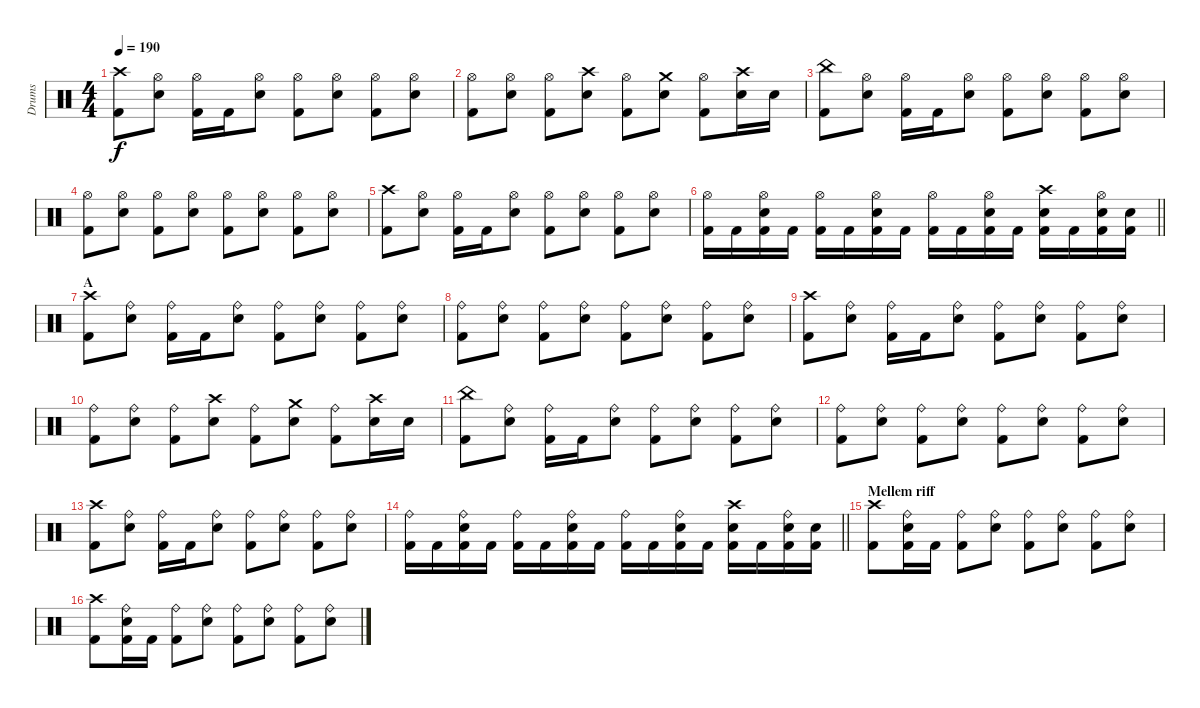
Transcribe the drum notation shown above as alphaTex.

\track ("Drums" "Drums") {instrument percussion}
\staff {score}
\articulation defaults
\ts (4 4)
\tempo 190
\clef neutral
\ks c
("Crash high (hit)" "Kick (hit) 2").8{dy f} ("Hi-Hat (open)" "Snare (hit) 2").8 ("Hi-Hat (open)" "Kick (hit) 2").16 "Kick (hit) 2".16 ("Hi-Hat (open)" "Snare (hit) 2").8 ("Hi-Hat (open)" "Kick (hit) 2").8 ("Hi-Hat (open)" "Snare (hit) 2").8 ("Hi-Hat (open)" "Kick (hit) 2").8 ("Hi-Hat (open)" "Snare (hit) 2").8 |
("Hi-Hat (open)" "Kick (hit) 2").8 ("Hi-Hat (open)" "Snare (hit) 2").8 ("Hi-Hat (open)" "Kick (hit) 2").8 ("Crash high (hit)" "Snare (hit) 2").8 ("Hi-Hat (open)" "Kick (hit) 2").8 ("Crash medium (hit)" "Snare (hit) 2").8 ("Hi-Hat (open)" "Kick (hit) 2").8 ("Crash high (hit)" "Snare (hit) 2").16 "Snare (hit) 2".16 |
("China (hit)" "Kick (hit) 2").8 ("Hi-Hat (open)" "Snare (hit) 2").8 ("Hi-Hat (open)" "Kick (hit) 2").16 "Kick (hit) 2".16 ("Hi-Hat (open)" "Snare (hit) 2").8 ("Hi-Hat (open)" "Kick (hit) 2").8 ("Hi-Hat (open)" "Snare (hit) 2").8 ("Hi-Hat (open)" "Kick (hit) 2").8 ("Hi-Hat (open)" "Snare (hit) 2").8 |
("Hi-Hat (open)" "Kick (hit) 2").8 ("Hi-Hat (open)" "Snare (hit) 2").8 ("Hi-Hat (open)" "Kick (hit) 2").8 ("Hi-Hat (open)" "Snare (hit) 2").8 ("Hi-Hat (open)" "Kick (hit) 2").8 ("Hi-Hat (open)" "Snare (hit) 2").8 ("Hi-Hat (open)" "Kick (hit) 2").8 ("Hi-Hat (open)" "Snare (hit) 2").8 |
("Crash high (hit)" "Kick (hit) 2").8 ("Hi-Hat (open)" "Snare (hit) 2").8 ("Hi-Hat (open)" "Kick (hit) 2").16 "Kick (hit) 2".16 ("Hi-Hat (open)" "Snare (hit) 2").8 ("Hi-Hat (open)" "Kick (hit) 2").8 ("Hi-Hat (open)" "Snare (hit) 2").8 ("Hi-Hat (open)" "Kick (hit) 2").8 ("Hi-Hat (open)" "Snare (hit) 2").8 |
\barLineRight lightlight
("Hi-Hat (open)" "Kick (hit) 2").16 "Kick (hit) 2".16 ("Hi-Hat (open)" "Snare (hit) 2" "Kick (hit) 2").16 "Kick (hit) 2".16 ("Hi-Hat (open)" "Kick (hit) 2").16 "Kick (hit) 2".16 ("Hi-Hat (open)" "Snare (hit) 2" "Kick (hit) 2").16 "Kick (hit) 2".16 ("Hi-Hat (open)" "Kick (hit) 2").16 "Kick (hit) 2".16 ("Hi-Hat (open)" "Snare (hit) 2" "Kick (hit) 2").16 "Kick (hit) 2".16 ("Crash high (hit)" "Snare (hit) 2" "Kick (hit) 2").16 "Kick (hit) 2".16 ("Hi-Hat (open)" "Snare (hit) 2" "Kick (hit) 2").16 ("Snare (hit) 2" "Kick (hit) 2").16 |
\section ("" "A")
("Crash high (hit)" "Kick (hit) 2").8 ("Ride (bell)" "Snare (hit) 2").8 ("Ride (bell)" "Kick (hit) 2").16 "Kick (hit) 2".16 ("Ride (bell)" "Snare (hit) 2").8 ("Ride (bell)" "Kick (hit) 2").8 ("Ride (bell)" "Snare (hit) 2").8 ("Ride (bell)" "Kick (hit) 2").8 ("Ride (bell)" "Snare (hit) 2").8 |
("Ride (bell)" "Kick (hit) 2").8 ("Ride (bell)" "Snare (hit) 2").8 ("Ride (bell)" "Kick (hit) 2").8 ("Ride (bell)" "Snare (hit) 2").8 ("Ride (bell)" "Kick (hit) 2").8 ("Ride (bell)" "Snare (hit) 2").8 ("Ride (bell)" "Kick (hit) 2").8 ("Ride (bell)" "Snare (hit) 2").8 |
("Crash high (hit)" "Kick (hit) 2").8 ("Ride (bell)" "Snare (hit) 2").8 ("Ride (bell)" "Kick (hit) 2").16 "Kick (hit) 2".16 ("Ride (bell)" "Snare (hit) 2").8 ("Ride (bell)" "Kick (hit) 2").8 ("Ride (bell)" "Snare (hit) 2").8 ("Ride (bell)" "Kick (hit) 2").8 ("Ride (bell)" "Snare (hit) 2").8 |
("Ride (bell)" "Kick (hit) 2").8 ("Ride (bell)" "Snare (hit) 2").8 ("Ride (bell)" "Kick (hit) 2").8 ("Crash high (hit)" "Snare (hit) 2").8 ("Ride (bell)" "Kick (hit) 2").8 ("Crash medium (hit)" "Snare (hit) 2").8 ("Ride (bell)" "Kick (hit) 2").8 ("Crash high (hit)" "Snare (hit) 2").16 "Snare (hit) 2".16 |
("China (hit)" "Kick (hit) 2").8 ("Ride (bell)" "Snare (hit) 2").8 ("Ride (bell)" "Kick (hit) 2").16 "Kick (hit) 2".16 ("Ride (bell)" "Snare (hit) 2").8 ("Ride (bell)" "Kick (hit) 2").8 ("Ride (bell)" "Snare (hit) 2").8 ("Ride (bell)" "Kick (hit) 2").8 ("Ride (bell)" "Snare (hit) 2").8 |
("Ride (bell)" "Kick (hit) 2").8 ("Ride (bell)" "Snare (hit) 2").8 ("Ride (bell)" "Kick (hit) 2").8 ("Ride (bell)" "Snare (hit) 2").8 ("Ride (bell)" "Kick (hit) 2").8 ("Ride (bell)" "Snare (hit) 2").8 ("Ride (bell)" "Kick (hit) 2").8 ("Ride (bell)" "Snare (hit) 2").8 |
("Crash high (hit)" "Kick (hit) 2").8 ("Ride (bell)" "Snare (hit) 2").8 ("Ride (bell)" "Kick (hit) 2").16 "Kick (hit) 2".16 ("Ride (bell)" "Snare (hit) 2").8 ("Ride (bell)" "Kick (hit) 2").8 ("Ride (bell)" "Snare (hit) 2").8 ("Ride (bell)" "Kick (hit) 2").8 ("Ride (bell)" "Snare (hit) 2").8 |
\barLineRight lightlight
("Ride (bell)" "Kick (hit) 2").16 "Kick (hit) 2".16 ("Ride (bell)" "Snare (hit) 2" "Kick (hit) 2").16 "Kick (hit) 2".16 ("Ride (bell)" "Kick (hit) 2").16 "Kick (hit) 2".16 ("Ride (bell)" "Snare (hit) 2" "Kick (hit) 2").16 "Kick (hit) 2".16 ("Ride (bell)" "Kick (hit) 2").16 "Kick (hit) 2".16 ("Ride (bell)" "Snare (hit) 2" "Kick (hit) 2").16 "Kick (hit) 2".16 ("Crash high (hit)" "Snare (hit) 2" "Kick (hit) 2").16 "Kick (hit) 2".16 ("Ride (bell)" "Snare (hit) 2" "Kick (hit) 2").16 ("Snare (hit) 2" "Kick (hit) 2").16 |
\section ("" "Mellem riff")
("Crash high (hit)" "Kick (hit) 2").8 ("Ride (bell)" "Snare (hit) 2" "Kick (hit) 2").16 "Kick (hit) 2".16 ("Ride (bell)" "Kick (hit) 2").8 ("Ride (bell)" "Snare (hit) 2").8 ("Ride (bell)" "Kick (hit) 2").8 ("Ride (bell)" "Snare (hit) 2").8 ("Ride (bell)" "Kick (hit) 2").8 ("Ride (bell)" "Snare (hit) 2").8 |
("Crash high (hit)" "Kick (hit) 2").8 ("Ride (bell)" "Snare (hit) 2" "Kick (hit) 2").16 "Kick (hit) 2".16 ("Ride (bell)" "Kick (hit) 2").8 ("Ride (bell)" "Snare (hit) 2").8 ("Ride (bell)" "Kick (hit) 2").8 ("Ride (bell)" "Snare (hit) 2").8 ("Ride (bell)" "Kick (hit) 2").8 ("Ride (bell)" "Snare (hit) 2").8
